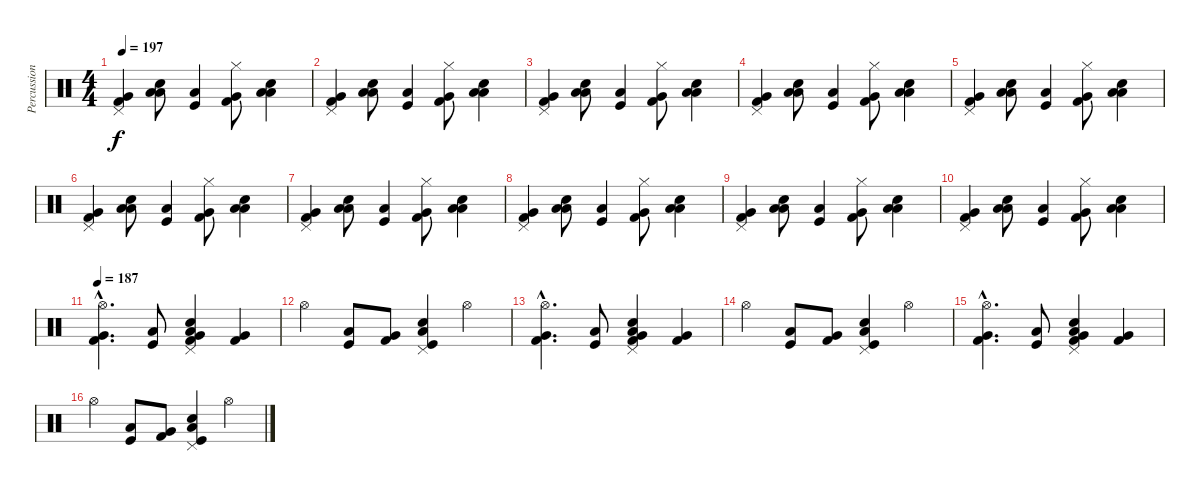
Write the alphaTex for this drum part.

\track ("Percussions" "Percussion") {instrument percussion}
\staff {score}
\articulation defaults
\ts (4 4)
\tempo 197
\clef neutral
\ks c
("Pedal Hi-Hat (hit)" "Very Low Tom (hit)" "Kick (hit) 2").4{dy f} ("Low Tom (hit)" "Low Floor Tom (hit)" "Electric Snare (hit)").8 ("Low Tom (hit)" "Kick (hit)").4 ("Hi-Hat (closed)" "Very Low Tom (hit)" "Kick (hit) 2").8 ("Low Tom (hit)" "Low Floor Tom (hit)" "Electric Snare (hit)").4 |
("Pedal Hi-Hat (hit)" "Very Low Tom (hit)" "Kick (hit) 2").4 ("Low Tom (hit)" "Low Floor Tom (hit)" "Electric Snare (hit)").8 ("Low Tom (hit)" "Kick (hit)").4 ("Hi-Hat (closed)" "Very Low Tom (hit)" "Kick (hit) 2").8 ("Low Tom (hit)" "Low Floor Tom (hit)" "Electric Snare (hit)").4 |
("Pedal Hi-Hat (hit)" "Very Low Tom (hit)" "Kick (hit) 2").4 ("Low Tom (hit)" "Low Floor Tom (hit)" "Electric Snare (hit)").8 ("Low Tom (hit)" "Kick (hit)").4 ("Hi-Hat (closed)" "Very Low Tom (hit)" "Kick (hit) 2").8 ("Low Tom (hit)" "Low Floor Tom (hit)" "Electric Snare (hit)").4 |
("Pedal Hi-Hat (hit)" "Very Low Tom (hit)" "Kick (hit) 2").4 ("Low Tom (hit)" "Low Floor Tom (hit)" "Electric Snare (hit)").8 ("Low Tom (hit)" "Kick (hit)").4 ("Hi-Hat (closed)" "Very Low Tom (hit)" "Kick (hit) 2").8 ("Low Tom (hit)" "Low Floor Tom (hit)" "Electric Snare (hit)").4 |
("Pedal Hi-Hat (hit)" "Very Low Tom (hit)" "Kick (hit) 2").4 ("Low Tom (hit)" "Low Floor Tom (hit)" "Electric Snare (hit)").8 ("Low Tom (hit)" "Kick (hit)").4 ("Hi-Hat (closed)" "Very Low Tom (hit)" "Kick (hit) 2").8 ("Low Tom (hit)" "Low Floor Tom (hit)" "Electric Snare (hit)").4 |
("Pedal Hi-Hat (hit)" "Very Low Tom (hit)" "Kick (hit) 2").4 ("Low Tom (hit)" "Low Floor Tom (hit)" "Electric Snare (hit)").8 ("Low Tom (hit)" "Kick (hit)").4 ("Hi-Hat (closed)" "Very Low Tom (hit)" "Kick (hit) 2").8 ("Low Tom (hit)" "Low Floor Tom (hit)" "Electric Snare (hit)").4 |
("Pedal Hi-Hat (hit)" "Very Low Tom (hit)" "Kick (hit) 2").4 ("Low Tom (hit)" "Low Floor Tom (hit)" "Electric Snare (hit)").8 ("Low Tom (hit)" "Kick (hit)").4 ("Hi-Hat (closed)" "Very Low Tom (hit)" "Kick (hit) 2").8 ("Low Tom (hit)" "Low Floor Tom (hit)" "Electric Snare (hit)").4 |
("Pedal Hi-Hat (hit)" "Very Low Tom (hit)" "Kick (hit) 2").4 ("Low Tom (hit)" "Low Floor Tom (hit)" "Electric Snare (hit)").8 ("Low Tom (hit)" "Kick (hit)").4 ("Hi-Hat (closed)" "Very Low Tom (hit)" "Kick (hit) 2").8 ("Low Tom (hit)" "Low Floor Tom (hit)" "Electric Snare (hit)").4 |
("Pedal Hi-Hat (hit)" "Very Low Tom (hit)" "Kick (hit) 2").4 ("Low Tom (hit)" "Low Floor Tom (hit)" "Electric Snare (hit)").8 ("Low Tom (hit)" "Kick (hit)").4 ("Hi-Hat (closed)" "Very Low Tom (hit)" "Kick (hit) 2").8 ("Low Tom (hit)" "Low Floor Tom (hit)" "Electric Snare (hit)").4 |
("Pedal Hi-Hat (hit)" "Very Low Tom (hit)" "Kick (hit) 2").4 ("Low Tom (hit)" "Low Floor Tom (hit)" "Electric Snare (hit)").8 ("Low Tom (hit)" "Kick (hit)").4 ("Hi-Hat (closed)" "Very Low Tom (hit)" "Kick (hit) 2").8 ("Low Tom (hit)" "Low Floor Tom (hit)" "Electric Snare (hit)").4 |
\tempo 187
("Very Low Tom (hit)"{hac} "Hi-Hat (open)"{hac} "Kick (hit) 2"{hac}).4{d} ("Low Tom (hit)" "Kick (hit)").8 ("Pedal Hi-Hat (hit)" "Snare (hit) 2" "Low Floor Tom (hit)" "Kick (hit) 2" "Very Low Tom (hit)").4 ("Very Low Tom (hit)" "Kick (hit) 2").4 |
"Hi-Hat (open)".4 ("Low Tom (hit)" "Kick (hit)").8 ("Very Low Tom (hit)" "Kick (hit) 2").8 ("Low Tom (hit)" "Snare (hit) 2" "Pedal Hi-Hat (hit)" "Kick (hit)").4 "Hi-Hat (open)".4 |
("Very Low Tom (hit)"{hac} "Hi-Hat (open)"{hac} "Kick (hit) 2"{hac}).4{d} ("Low Tom (hit)" "Kick (hit)").8 ("Pedal Hi-Hat (hit)" "Snare (hit) 2" "Low Floor Tom (hit)" "Kick (hit) 2" "Very Low Tom (hit)").4 ("Very Low Tom (hit)" "Kick (hit) 2").4 |
"Hi-Hat (open)".4 ("Low Tom (hit)" "Kick (hit)").8 ("Very Low Tom (hit)" "Kick (hit) 2").8 ("Low Tom (hit)" "Snare (hit) 2" "Pedal Hi-Hat (hit)" "Kick (hit)").4 "Hi-Hat (open)".4 |
("Very Low Tom (hit)"{hac} "Hi-Hat (open)"{hac} "Kick (hit) 2"{hac}).4{d} ("Low Tom (hit)" "Kick (hit)").8 ("Pedal Hi-Hat (hit)" "Snare (hit) 2" "Low Floor Tom (hit)" "Kick (hit) 2" "Very Low Tom (hit)").4 ("Very Low Tom (hit)" "Kick (hit) 2").4 |
"Hi-Hat (open)".4 ("Low Tom (hit)" "Kick (hit)").8 ("Very Low Tom (hit)" "Kick (hit) 2").8 ("Low Tom (hit)" "Snare (hit) 2" "Pedal Hi-Hat (hit)" "Kick (hit)").4 "Hi-Hat (open)".4
